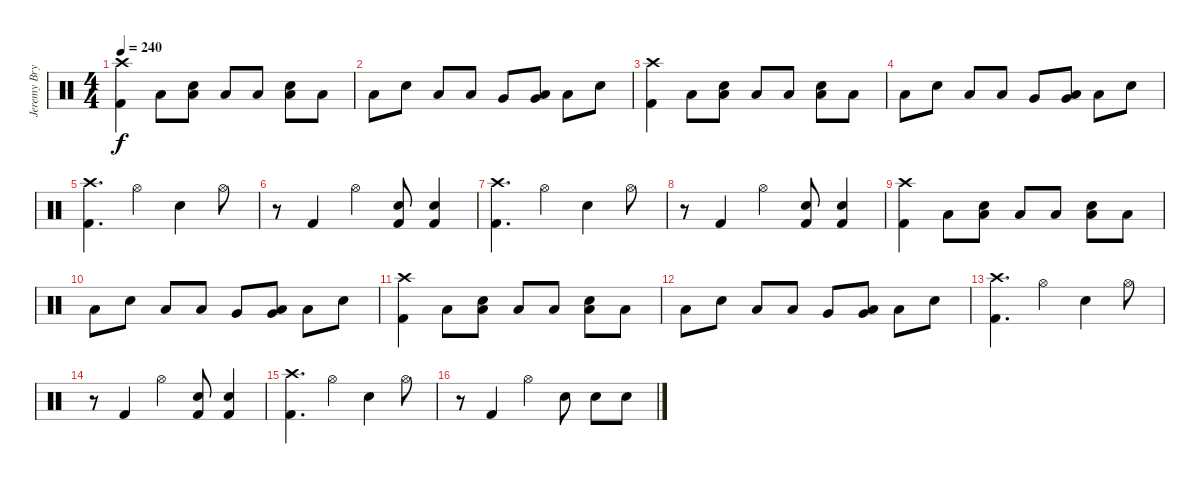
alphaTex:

\track ("Jeremy Bryan - Drums" "Jeremy Bry") {instrument percussion}
\staff {score}
\articulation defaults
\ts (4 4)
\tempo 240
\clef neutral
\ks c
("Crash high (hit)" "Kick (hit) 2").4{dy f} "Low Floor Tom (hit)".8 ("Electric Snare (hit)" "Low Floor Tom (hit)").8 "Low Floor Tom (hit)".8 "Low Floor Tom (hit)".8 ("Electric Snare (hit)" "Low Floor Tom (hit)").8 "Low Floor Tom (hit)".8 |
"Low Floor Tom (hit)".8 "Electric Snare (hit)".8 "Low Tom (hit)".8 "Low Tom (hit)".8 "Very Low Tom (hit)".8 ("Very Low Tom (hit)" "Low Floor Tom (hit)").8 "Low Floor Tom (hit)".8 "Electric Snare (hit)".8 |
("Crash high (hit)" "Kick (hit) 2").4 "Low Floor Tom (hit)".8 ("Electric Snare (hit)" "Low Floor Tom (hit)").8 "Low Floor Tom (hit)".8 "Low Floor Tom (hit)".8 ("Electric Snare (hit)" "Low Floor Tom (hit)").8 "Low Floor Tom (hit)".8 |
"Low Floor Tom (hit)".8 "Electric Snare (hit)".8 "Low Tom (hit)".8 "Low Tom (hit)".8 "Very Low Tom (hit)".8 ("Very Low Tom (hit)" "Low Floor Tom (hit)").8 "Low Floor Tom (hit)".8 "Electric Snare (hit)".8 |
("Crash high (hit)" "Kick (hit) 2").4{d} "Hi-Hat (open)".4 "Electric Snare (hit)".4 "Hi-Hat (open)".8 |
r.8 "Kick (hit) 2".4 "Hi-Hat (open)".4 ("Electric Snare (hit)" "Kick (hit) 2").8 ("Electric Snare (hit)" "Kick (hit) 2").4 |
("Crash high (hit)" "Kick (hit) 2").4{d} "Hi-Hat (open)".4 "Electric Snare (hit)".4 "Hi-Hat (open)".8 |
r.8 "Kick (hit) 2".4 "Hi-Hat (open)".4 ("Electric Snare (hit)" "Kick (hit) 2").8 ("Electric Snare (hit)" "Kick (hit) 2").4 |
("Crash high (hit)" "Kick (hit) 2").4 "Low Floor Tom (hit)".8 ("Electric Snare (hit)" "Low Floor Tom (hit)").8 "Low Floor Tom (hit)".8 "Low Floor Tom (hit)".8 ("Electric Snare (hit)" "Low Floor Tom (hit)").8 "Low Floor Tom (hit)".8 |
"Low Floor Tom (hit)".8 "Electric Snare (hit)".8 "Low Tom (hit)".8 "Low Tom (hit)".8 "Very Low Tom (hit)".8 ("Very Low Tom (hit)" "Low Floor Tom (hit)").8 "Low Floor Tom (hit)".8 "Electric Snare (hit)".8 |
("Crash high (hit)" "Kick (hit) 2").4 "Low Floor Tom (hit)".8 ("Electric Snare (hit)" "Low Floor Tom (hit)").8 "Low Floor Tom (hit)".8 "Low Floor Tom (hit)".8 ("Electric Snare (hit)" "Low Floor Tom (hit)").8 "Low Floor Tom (hit)".8 |
"Low Floor Tom (hit)".8 "Electric Snare (hit)".8 "Low Tom (hit)".8 "Low Tom (hit)".8 "Very Low Tom (hit)".8 ("Very Low Tom (hit)" "Low Floor Tom (hit)").8 "Low Floor Tom (hit)".8 "Electric Snare (hit)".8 |
("Crash high (hit)" "Kick (hit) 2").4{d} "Hi-Hat (open)".4 "Electric Snare (hit)".4 "Hi-Hat (open)".8 |
r.8 "Kick (hit) 2".4 "Hi-Hat (open)".4 ("Electric Snare (hit)" "Kick (hit) 2").8 ("Electric Snare (hit)" "Kick (hit) 2").4 |
("Crash high (hit)" "Kick (hit) 2").4{d} "Hi-Hat (open)".4 "Electric Snare (hit)".4 "Hi-Hat (open)".8 |
r.8 "Kick (hit) 2".4 "Hi-Hat (open)".4 "Electric Snare (hit)".8 "Electric Snare (hit)".8 "Electric Snare (hit)".8
